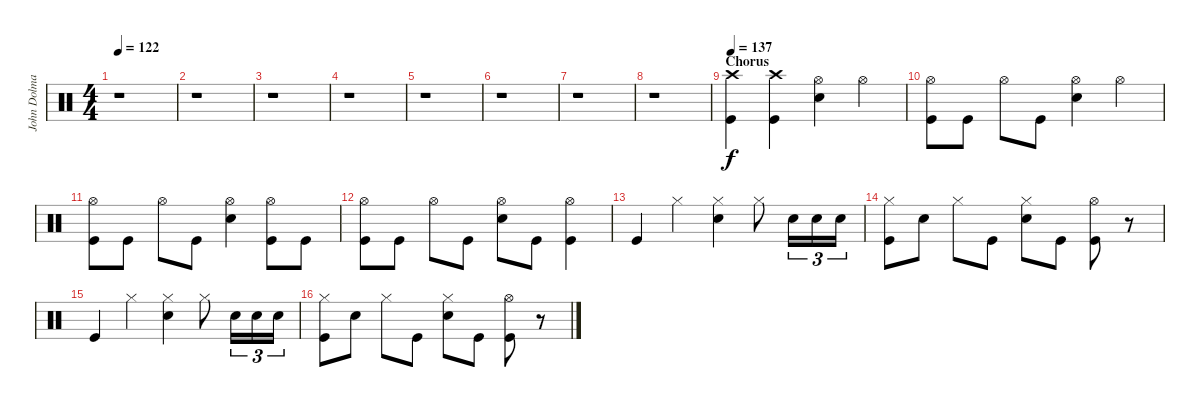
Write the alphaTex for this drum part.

\track ("John Dolmayan - Drums" "John Dolma") {instrument percussion}
\staff {score}
\articulation defaults
\ts (4 4)
\tempo 122
\clef neutral
\ks c
r.1{dy f} |
r.1 |
r.1 |
r.1 |
r.1 |
r.1 |
r.1 |
r.1 |
\section ("" "Chorus")
\tempo 137
("Crash high (hit)" "Kick (hit)").4 ("Crash high (hit)" "Kick (hit)").4 ("Hi-Hat (open)" "Snare (hit) 2").4 "Hi-Hat (open)".4 |
("Hi-Hat (open)" "Kick (hit)").8 "Kick (hit)".8 "Hi-Hat (open)".8 "Kick (hit)".8 ("Hi-Hat (open)" "Snare (hit) 2").4 "Hi-Hat (open)".4 |
("Hi-Hat (open)" "Kick (hit)").8 "Kick (hit)".8 "Hi-Hat (open)".8 "Kick (hit)".8 ("Hi-Hat (open)" "Snare (hit) 2").4 ("Hi-Hat (open)" "Kick (hit)").8 "Kick (hit)".8 |
("Hi-Hat (open)" "Kick (hit)").8 "Kick (hit)".8 "Hi-Hat (open)".8 "Kick (hit)".8 ("Hi-Hat (open)" "Snare (hit) 2").8 "Kick (hit)".8 ("Hi-Hat (open)" "Kick (hit)").4 |
"Kick (hit)".4 "Hi-Hat (closed)".4 ("Hi-Hat (closed)" "Snare (hit) 2").4 "Hi-Hat (closed)".8 "Snare (hit) 2".16{tu (3 2)} "Snare (hit) 2".16{tu (3 2)} "Snare (hit) 2".16{tu (3 2)} |
("Hi-Hat (closed)" "Kick (hit)").8 "Snare (hit) 2".8 "Hi-Hat (closed)".8 "Kick (hit)".8 ("Hi-Hat (closed)" "Snare (hit) 2").8 "Kick (hit)".8 ("Hi-Hat (open)" "Kick (hit)").8 r.8 |
"Kick (hit)".4 "Hi-Hat (closed)".4 ("Hi-Hat (closed)" "Snare (hit) 2").4 "Hi-Hat (closed)".8 "Snare (hit) 2".16{tu (3 2)} "Snare (hit) 2".16{tu (3 2)} "Snare (hit) 2".16{tu (3 2)} |
("Hi-Hat (closed)" "Kick (hit)").8 "Snare (hit) 2".8 "Hi-Hat (closed)".8 "Kick (hit)".8 ("Hi-Hat (closed)" "Snare (hit) 2").8 "Kick (hit)".8 ("Hi-Hat (open)" "Kick (hit)").8 r.8
